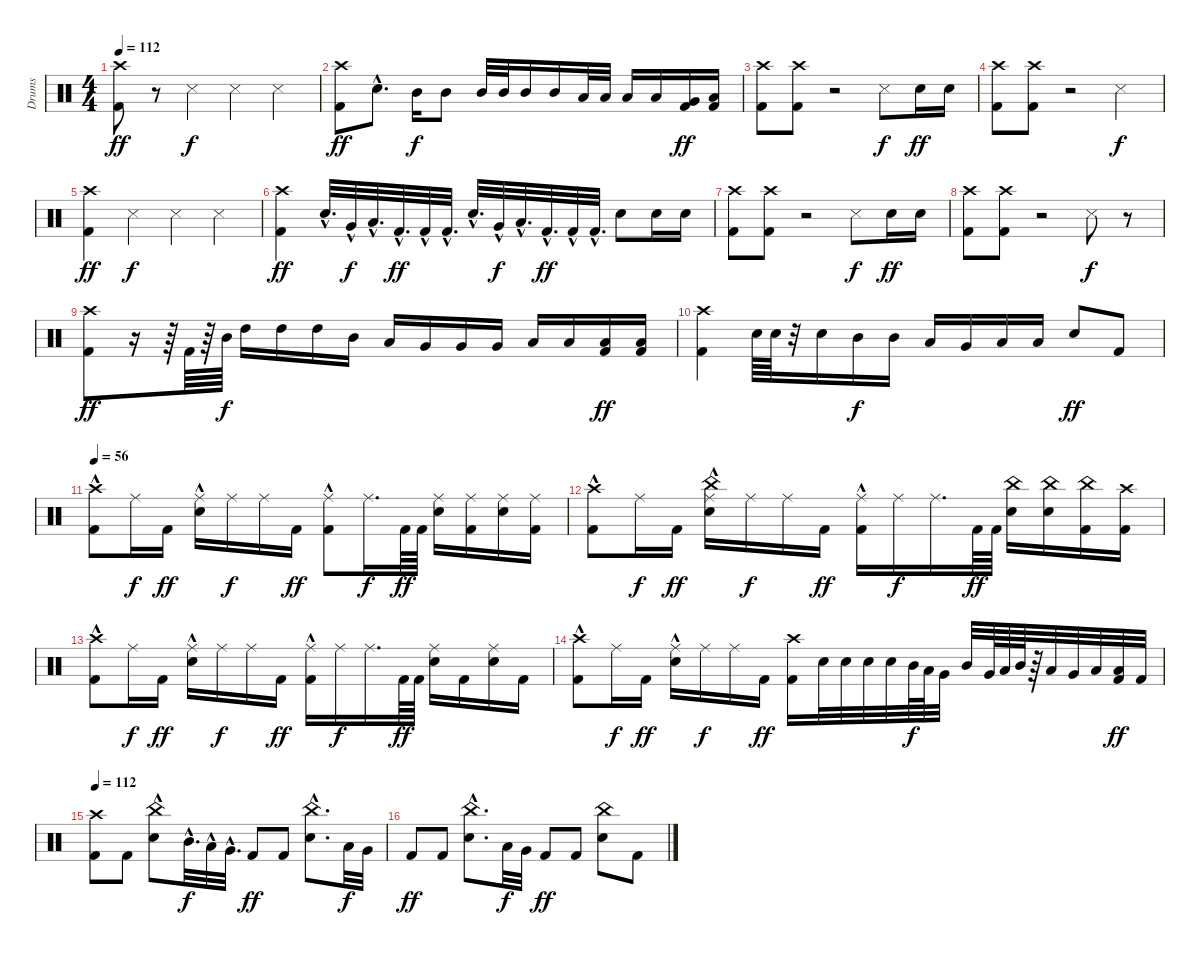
\track ("Drums" "Drums") {instrument percussion}
\staff {score}
\articulation defaults
\ts (4 4)
\tempo 112
\clef neutral
\ks c
("Crash high (hit)" "Kick (hit) 2").8{dy ff} r.8 "Snare (side stick) 3".4{dy f} "Snare (side stick) 3".4 "Snare (side stick) 3".4 |
("Crash high (hit)" "Kick (hit) 2").8{dy ff} "Electric Snare (hit)"{hac}.8{d} "Mid Tom (hit)".16{dy f} "Mid Tom (hit)".8 "Mid Tom (hit)".32 "Mid Tom (hit)".32 "Mid Tom (hit)".16 "Mid Tom (hit)".16 "Low Tom (hit)".32 "Low Tom (hit)".32 "Low Tom (hit)".16 "Low Tom (hit)".16 ("Very Low Tom (hit)" "Kick (hit) 2").16{dy ff} ("Low Floor Tom (hit)" "Kick (hit) 2").16 |
("Crash high (hit)" "Kick (hit) 2").8 ("Crash high (hit)" "Kick (hit) 2").8 r.2 "Snare (side stick) 3".8{dy f volume 11} "Electric Snare (hit)".16{dy ff} "Electric Snare (hit)".16 |
("Crash high (hit)" "Kick (hit) 2").8 ("Crash high (hit)" "Kick (hit) 2").8 r.2 "Snare (side stick) 3".4{dy f volume 11} |
("Crash high (hit)" "Kick (hit) 2").4{dy ff} "Snare (side stick) 3".4{dy f} "Snare (side stick) 3".4 "Snare (side stick) 3".4 |
("Crash high (hit)" "Kick (hit) 2").4{dy ff} "Electric Snare (hit)"{hac}.32{d} "Very Low Tom (hit)"{hac}.32{dy f} "Low Floor Tom (hit)"{hac}.32{d} "Kick (hit) 2"{hac}.32{d dy ff} "Kick (hit) 2"{hac}.32 "Kick (hit) 2"{hac}.32{d} "Electric Snare (hit)"{hac}.32{d} "Very Low Tom (hit)"{hac}.32{dy f} "Low Floor Tom (hit)"{hac}.32{d} "Kick (hit) 2"{hac}.32{d dy ff} "Kick (hit) 2"{hac}.32 "Kick (hit) 2"{hac}.32{d} "Electric Snare (hit)".8 "Electric Snare (hit)".16 "Electric Snare (hit)".16 |
("Crash high (hit)" "Kick (hit) 2").8 ("Crash high (hit)" "Kick (hit) 2").8 r.2 "Snare (side stick) 3".8{dy f volume 11} "Electric Snare (hit)".16{dy ff} "Electric Snare (hit)".16 |
("Crash high (hit)" "Kick (hit) 2").8 ("Crash high (hit)" "Kick (hit) 2").8 r.2 "Snare (side stick) 3".8{dy f volume 11} r.8 |
("Crash high (hit)" "Kick (hit) 2").8{dy ff} r.16 r.64 "Kick (hit) 2".64 r.64 "Mid Tom (hit)".64{dy f} "High Tom (hit)".16 "High Tom (hit)".16 "High Tom (hit)".16 "Mid Tom (hit)".16 "Low Tom (hit)".16 "Very Low Tom (hit)".16 "Very Low Tom (hit)".16 "Very Low Tom (hit)".16 "Low Floor Tom (hit)".16 "Low Floor Tom (hit)".16 ("Low Floor Tom (hit)" "Kick (hit) 2").16{dy ff} ("Low Floor Tom (hit)" "Kick (hit) 2").16 |
("Crash high (hit)" "Kick (hit) 2").4 "Electric Snare (hit)".64 "Electric Snare (hit)".64 r.32 "Electric Snare (hit)".16 "Mid Tom (hit)".16{dy f} "Mid Tom (hit)".16 "Low Tom (hit)".16 "Very Low Tom (hit)".16 "Low Floor Tom (hit)".16 "Low Floor Tom (hit)".16 "Electric Snare (hit)".8{dy ff} "Kick (hit) 2".8 |
\tempo 56
("Crash high (hit)" "Kick (hit) 2"{hac}).8 "Ride (middle)".16{dy f} "Kick (hit) 2".16{dy ff} ("Electric Snare (hit)"{hac} "Ride (middle)").16 "Ride (middle)".16{dy f} "Ride (middle)".16 "Kick (hit) 2".16{dy ff} ("Ride (middle)" "Kick (hit) 2"{hac}).8 "Ride (middle)".16{d dy f} "Kick (hit) 2".64{dy ff} "Kick (hit) 2".64 ("Ride (middle)" "Electric Snare (hit)").16 ("Ride (middle)" "Kick (hit) 2").16 ("Ride (middle)" "Electric Snare (hit)").16 ("Ride (middle)" "Kick (hit) 2").16 |
("Crash high (hit)" "Kick (hit) 2"{hac}).8 "Ride (middle)".16{dy f} "Kick (hit) 2".16{dy ff} ("China (hit)"{hac} "Electric Snare (hit)"{hac} "Ride (middle)").16 "Ride (middle)".16{dy f} "Ride (middle)".16 "Kick (hit) 2".16{dy ff} ("Ride (middle)" "Kick (hit) 2"{hac}).16 "Ride (middle)".16{dy f} "Ride (middle)".16{d} "Kick (hit) 2".64{dy ff} "Kick (hit) 2".64 ("China (hit)" "Electric Snare (hit)").16 ("China (hit)" "Electric Snare (hit)").16 ("China (hit)" "Kick (hit) 2").16 ("Crash high (hit)" "Kick (hit) 2").16 |
("Crash high (hit)" "Kick (hit) 2"{hac}).8 "Ride (middle)".16{dy f} "Kick (hit) 2".16{dy ff} ("Electric Snare (hit)"{hac} "Ride (middle)").16 "Ride (middle)".16{dy f} "Ride (middle)".16 "Kick (hit) 2".16{dy ff} ("Ride (middle)" "Kick (hit) 2"{hac}).16 "Ride (middle)".16{dy f} "Ride (middle)".16{d} "Kick (hit) 2".64{dy ff} "Kick (hit) 2".64 ("Ride (middle)" "Electric Snare (hit)").16 "Kick (hit) 2".16 ("Ride (middle)" "Electric Snare (hit)").16 "Kick (hit) 2".16 |
("Crash high (hit)" "Kick (hit) 2"{hac}).8 "Ride (middle)".16{dy f} "Kick (hit) 2".16{dy ff} ("Electric Snare (hit)"{hac} "Ride (middle)").16 "Ride (middle)".16{dy f} "Ride (middle)".16 "Kick (hit) 2".16{dy ff} ("Crash high (hit)" "Kick (hit) 2").16 "Electric Snare (hit)".32 "Electric Snare (hit)".32 "Electric Snare (hit)".32 "Electric Snare (hit)".32 "Mid Tom (hit)".64{dy f} "Low Tom (hit)".64 "Very Low Tom (hit)".32 "Mid Tom (hit)".32 "Very Low Tom (hit)".64 "Low Tom (hit)".64 "Mid Tom (hit)".64 r.64 "Low Tom (hit)".32 "Very Low Tom (hit)".32 "Low Floor Tom (hit)".32 ("Low Floor Tom (hit)" "Kick (hit) 2").32{dy ff} "Kick (hit) 2".32 |
\tempo 112
("Crash high (hit)" "Kick (hit) 2").8 "Kick (hit) 2".8 ("China (hit)"{hac} "Electric Snare (hit)"{hac}).8 "Mid Tom (hit)"{hac}.32{d dy f} "Low Tom (hit)"{hac}.32 "Very Low Tom (hit)"{hac}.32{d} "Kick (hit) 2".8{dy ff} "Kick (hit) 2".8 ("China (hit)"{hac} "Electric Snare (hit)"{hac}).8{d} "Low Tom (hit)".32{dy f} "Very Low Tom (hit)".32 |
"Kick (hit) 2".8{dy ff} "Kick (hit) 2".8 ("China (hit)"{hac} "Electric Snare (hit)"{hac}).8{d} "Low Tom (hit)".32{dy f} "Very Low Tom (hit)".32 "Kick (hit) 2".8{dy ff} "Kick (hit) 2".8 ("China (hit)" "Electric Snare (hit)").8 "Kick (hit) 2".8
